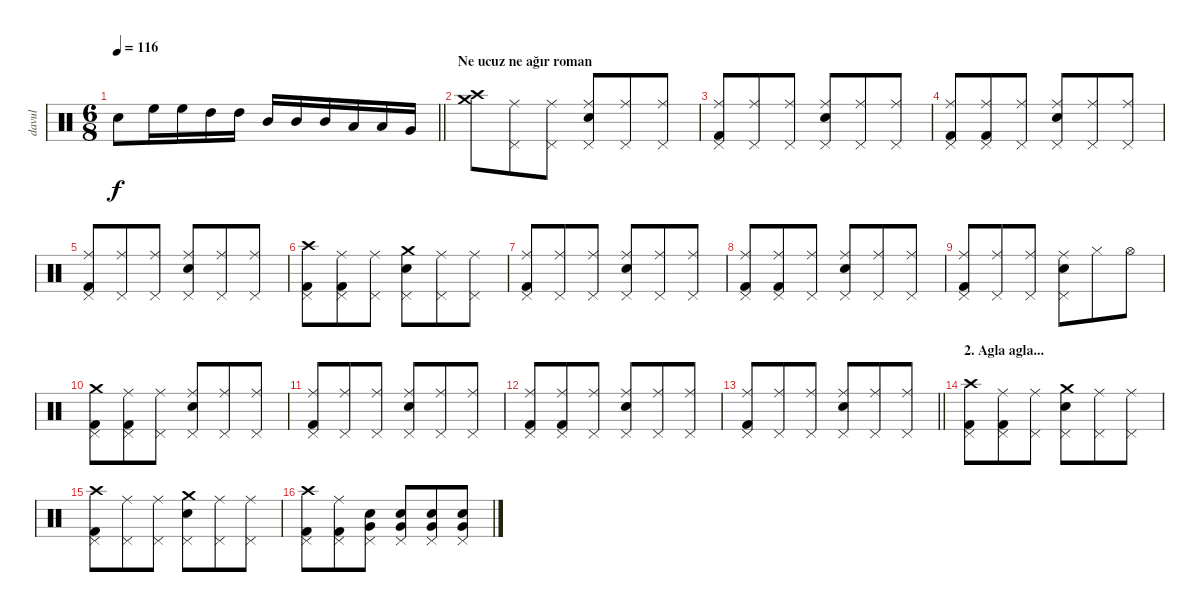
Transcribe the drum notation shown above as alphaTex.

\track ("davul" "davul") {instrument percussion}
\staff {score}
\articulation defaults
\ts (6 8)
\tempo 116
\clef neutral
\barLineRight lightlight
\ks c "Snare (hit) 2".8{dy f} "High Floor Tom (hit)".16 "High Floor Tom (hit)".16 "High Tom (hit)".16 "High Tom (hit)".16 "Mid Tom (hit)".16 "Mid Tom (hit)".16 "Mid Tom (hit)".16 "Low Tom (hit)".16 "Low Tom (hit)".16 "Very Low Tom (hit)".16
|
\section ("" "Ne ucuz ne ağır roman")
("Crash high (hit)" "Crash medium (hit)").8 ("Ride (middle)" "Pedal Hi-Hat (hit)").8 ("Ride (middle)" "Pedal Hi-Hat (hit)").8 ("Ride (middle)" "Electric Snare (hit)" "Pedal Hi-Hat (hit)").8 ("Ride (middle)" "Pedal Hi-Hat (hit)").8 ("Ride (middle)" "Pedal Hi-Hat (hit)").8 |
("Ride (middle)" "Kick (hit) 2" "Pedal Hi-Hat (hit)").8 ("Ride (middle)" "Pedal Hi-Hat (hit)").8 ("Ride (middle)" "Pedal Hi-Hat (hit)").8 ("Ride (middle)" "Electric Snare (hit)" "Pedal Hi-Hat (hit)").8 ("Ride (middle)" "Pedal Hi-Hat (hit)").8 ("Ride (middle)" "Pedal Hi-Hat (hit)").8 |
("Ride (middle)" "Kick (hit) 2" "Pedal Hi-Hat (hit)").8 ("Ride (middle)" "Kick (hit) 2" "Pedal Hi-Hat (hit)").8 ("Ride (middle)" "Pedal Hi-Hat (hit)").8 ("Ride (middle)" "Electric Snare (hit)" "Pedal Hi-Hat (hit)").8 ("Ride (middle)" "Pedal Hi-Hat (hit)").8 ("Ride (middle)" "Pedal Hi-Hat (hit)").8 |
("Ride (middle)" "Kick (hit) 2" "Pedal Hi-Hat (hit)").8 ("Ride (middle)" "Pedal Hi-Hat (hit)").8 ("Ride (middle)" "Pedal Hi-Hat (hit)").8 ("Ride (middle)" "Electric Snare (hit)" "Pedal Hi-Hat (hit)").8 ("Ride (middle)" "Pedal Hi-Hat (hit)").8 ("Ride (middle)" "Pedal Hi-Hat (hit)").8 |
("Crash high (hit)" "Kick (hit) 2" "Pedal Hi-Hat (hit)").8 ("Ride (middle)" "Kick (hit) 2" "Pedal Hi-Hat (hit)").8 ("Ride (middle)" "Pedal Hi-Hat (hit)").8 ("Crash medium (hit)" "Electric Snare (hit)" "Pedal Hi-Hat (hit)").8 ("Ride (middle)" "Pedal Hi-Hat (hit)").8 ("Ride (middle)" "Pedal Hi-Hat (hit)").8 |
("Ride (middle)" "Kick (hit) 2" "Pedal Hi-Hat (hit)").8 ("Ride (middle)" "Pedal Hi-Hat (hit)").8 ("Ride (middle)" "Pedal Hi-Hat (hit)").8 ("Ride (middle)" "Electric Snare (hit)" "Pedal Hi-Hat (hit)").8 ("Ride (middle)" "Pedal Hi-Hat (hit)").8 ("Ride (middle)" "Pedal Hi-Hat (hit)").8 |
("Ride (middle)" "Kick (hit) 2" "Pedal Hi-Hat (hit)").8 ("Ride (middle)" "Kick (hit) 2" "Pedal Hi-Hat (hit)").8 ("Ride (middle)" "Pedal Hi-Hat (hit)").8 ("Ride (middle)" "Electric Snare (hit)" "Pedal Hi-Hat (hit)").8 ("Ride (middle)" "Pedal Hi-Hat (hit)").8 ("Ride (middle)" "Pedal Hi-Hat (hit)").8 |
("Ride (middle)" "Kick (hit) 2" "Pedal Hi-Hat (hit)").8 ("Ride (middle)" "Pedal Hi-Hat (hit)").8 ("Ride (middle)" "Pedal Hi-Hat (hit)").8 ("Ride (middle)" "Electric Snare (hit)" "Pedal Hi-Hat (hit)").8 "Hi-Hat (closed)".8 "Hi-Hat (open)".8 |
("Crash medium (hit)" "Kick (hit) 2" "Pedal Hi-Hat (hit)").8 ("Ride (middle)" "Kick (hit) 2" "Pedal Hi-Hat (hit)").8 ("Ride (middle)" "Pedal Hi-Hat (hit)").8 ("Ride (middle)" "Electric Snare (hit)" "Pedal Hi-Hat (hit)").8 ("Ride (middle)" "Pedal Hi-Hat (hit)").8 ("Ride (middle)" "Pedal Hi-Hat (hit)").8 |
("Ride (middle)" "Kick (hit) 2" "Pedal Hi-Hat (hit)").8 ("Ride (middle)" "Pedal Hi-Hat (hit)").8 ("Ride (middle)" "Pedal Hi-Hat (hit)").8 ("Ride (middle)" "Electric Snare (hit)" "Pedal Hi-Hat (hit)").8 ("Ride (middle)" "Pedal Hi-Hat (hit)").8 ("Ride (middle)" "Pedal Hi-Hat (hit)").8 |
("Ride (middle)" "Kick (hit) 2" "Pedal Hi-Hat (hit)").8 ("Ride (middle)" "Kick (hit) 2" "Pedal Hi-Hat (hit)").8 ("Ride (middle)" "Pedal Hi-Hat (hit)").8 ("Ride (middle)" "Electric Snare (hit)" "Pedal Hi-Hat (hit)").8 ("Ride (middle)" "Pedal Hi-Hat (hit)").8 ("Ride (middle)" "Pedal Hi-Hat (hit)").8 |
\barLineRight lightlight
("Ride (middle)" "Kick (hit) 2" "Pedal Hi-Hat (hit)").8 ("Ride (middle)" "Pedal Hi-Hat (hit)").8 ("Ride (middle)" "Pedal Hi-Hat (hit)").8 ("Ride (middle)" "Electric Snare (hit)" "Pedal Hi-Hat (hit)").8 ("Ride (middle)" "Pedal Hi-Hat (hit)").8 ("Ride (middle)" "Pedal Hi-Hat (hit)").8 |
\section ("" "2. Agla agla...")
("Crash high (hit)" "Kick (hit) 2" "Pedal Hi-Hat (hit)").8 ("Ride (middle)" "Kick (hit) 2" "Pedal Hi-Hat (hit)").8 ("Ride (middle)" "Pedal Hi-Hat (hit)").8 ("Crash medium (hit)" "Electric Snare (hit)" "Pedal Hi-Hat (hit)").8 ("Ride (middle)" "Pedal Hi-Hat (hit)").8 ("Ride (middle)" "Pedal Hi-Hat (hit)").8 |
("Crash high (hit)" "Kick (hit) 2" "Pedal Hi-Hat (hit)").8 ("Ride (middle)" "Pedal Hi-Hat (hit)").8 ("Ride (middle)" "Pedal Hi-Hat (hit)").8 ("Crash medium (hit)" "Electric Snare (hit)" "Pedal Hi-Hat (hit)").8 ("Ride (middle)" "Pedal Hi-Hat (hit)").8 ("Ride (middle)" "Pedal Hi-Hat (hit)").8 |
("Crash high (hit)" "Kick (hit) 2" "Pedal Hi-Hat (hit)").8 ("Ride (middle)" "Kick (hit) 2" "Pedal Hi-Hat (hit)").8 ("Very Low Tom (hit)" "Electric Snare (hit)" "Pedal Hi-Hat (hit)").8 ("Very Low Tom (hit)" "Electric Snare (hit)" "Pedal Hi-Hat (hit)").8 ("Very Low Tom (hit)" "Electric Snare (hit)" "Pedal Hi-Hat (hit)").8 ("Very Low Tom (hit)" "Electric Snare (hit)" "Pedal Hi-Hat (hit)").8
